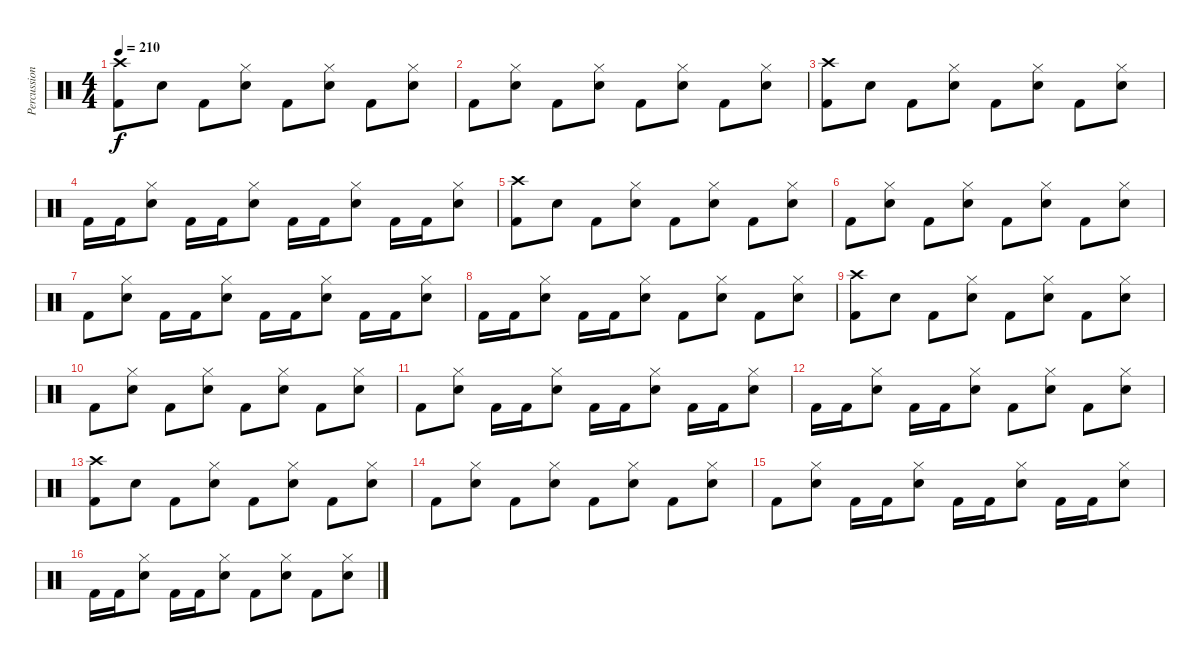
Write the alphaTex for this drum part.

\track ("Percussion" "Percussion") {instrument percussion}
\staff {score}
\articulation defaults
\ts (4 4)
\tempo 210
\clef neutral
\ks c
("Crash high (hit)" "Kick (hit) 2").8{dy f} "Electric Snare (hit)".8 "Kick (hit) 2".8 ("Hi-Hat (closed)" "Electric Snare (hit)").8 "Kick (hit) 2".8 ("Hi-Hat (closed)" "Electric Snare (hit)").8 "Kick (hit) 2".8 ("Hi-Hat (closed)" "Electric Snare (hit)").8 |
"Kick (hit) 2".8 ("Hi-Hat (closed)" "Electric Snare (hit)").8 "Kick (hit) 2".8 ("Hi-Hat (closed)" "Electric Snare (hit)").8 "Kick (hit) 2".8 ("Hi-Hat (closed)" "Electric Snare (hit)").8 "Kick (hit) 2".8 ("Hi-Hat (closed)" "Electric Snare (hit)").8 |
("Crash high (hit)" "Kick (hit) 2").8 "Electric Snare (hit)".8 "Kick (hit) 2".8 ("Hi-Hat (closed)" "Electric Snare (hit)").8 "Kick (hit) 2".8 ("Hi-Hat (closed)" "Electric Snare (hit)").8 "Kick (hit) 2".8 ("Hi-Hat (closed)" "Electric Snare (hit)").8 |
"Kick (hit) 2".16 "Kick (hit) 2".16 ("Hi-Hat (closed)" "Electric Snare (hit)").8 "Kick (hit) 2".16 "Kick (hit) 2".16 ("Hi-Hat (closed)" "Electric Snare (hit)").8 "Kick (hit) 2".16 "Kick (hit) 2".16 ("Hi-Hat (closed)" "Electric Snare (hit)").8 "Kick (hit) 2".16 "Kick (hit) 2".16 ("Hi-Hat (closed)" "Electric Snare (hit)").8 |
("Crash high (hit)" "Kick (hit) 2").8 "Electric Snare (hit)".8 "Kick (hit) 2".8 ("Hi-Hat (closed)" "Electric Snare (hit)").8 "Kick (hit) 2".8 ("Hi-Hat (closed)" "Electric Snare (hit)").8 "Kick (hit) 2".8 ("Hi-Hat (closed)" "Electric Snare (hit)").8 |
"Kick (hit) 2".8 ("Hi-Hat (closed)" "Electric Snare (hit)").8 "Kick (hit) 2".8 ("Hi-Hat (closed)" "Electric Snare (hit)").8 "Kick (hit) 2".8 ("Hi-Hat (closed)" "Electric Snare (hit)").8 "Kick (hit) 2".8 ("Hi-Hat (closed)" "Electric Snare (hit)").8 |
"Kick (hit) 2".8 ("Hi-Hat (closed)" "Electric Snare (hit)").8 "Kick (hit) 2".16 "Kick (hit) 2".16 ("Hi-Hat (closed)" "Electric Snare (hit)").8 "Kick (hit) 2".16 "Kick (hit) 2".16 ("Hi-Hat (closed)" "Electric Snare (hit)").8 "Kick (hit) 2".16 "Kick (hit) 2".16 ("Hi-Hat (closed)" "Electric Snare (hit)").8 |
"Kick (hit) 2".16 "Kick (hit) 2".16 ("Hi-Hat (closed)" "Electric Snare (hit)").8 "Kick (hit) 2".16 "Kick (hit) 2".16 ("Hi-Hat (closed)" "Electric Snare (hit)").8 "Kick (hit) 2".8 ("Hi-Hat (closed)" "Electric Snare (hit)").8 "Kick (hit) 2".8 ("Hi-Hat (closed)" "Electric Snare (hit)").8 |
("Crash high (hit)" "Kick (hit) 2").8 "Electric Snare (hit)".8 "Kick (hit) 2".8 ("Hi-Hat (closed)" "Electric Snare (hit)").8 "Kick (hit) 2".8 ("Hi-Hat (closed)" "Electric Snare (hit)").8 "Kick (hit) 2".8 ("Hi-Hat (closed)" "Electric Snare (hit)").8 |
"Kick (hit) 2".8 ("Hi-Hat (closed)" "Electric Snare (hit)").8 "Kick (hit) 2".8 ("Hi-Hat (closed)" "Electric Snare (hit)").8 "Kick (hit) 2".8 ("Hi-Hat (closed)" "Electric Snare (hit)").8 "Kick (hit) 2".8 ("Hi-Hat (closed)" "Electric Snare (hit)").8 |
"Kick (hit) 2".8 ("Hi-Hat (closed)" "Electric Snare (hit)").8 "Kick (hit) 2".16 "Kick (hit) 2".16 ("Hi-Hat (closed)" "Electric Snare (hit)").8 "Kick (hit) 2".16 "Kick (hit) 2".16 ("Hi-Hat (closed)" "Electric Snare (hit)").8 "Kick (hit) 2".16 "Kick (hit) 2".16 ("Hi-Hat (closed)" "Electric Snare (hit)").8 |
"Kick (hit) 2".16 "Kick (hit) 2".16 ("Hi-Hat (closed)" "Electric Snare (hit)").8 "Kick (hit) 2".16 "Kick (hit) 2".16 ("Hi-Hat (closed)" "Electric Snare (hit)").8 "Kick (hit) 2".8 ("Hi-Hat (closed)" "Electric Snare (hit)").8 "Kick (hit) 2".8 ("Hi-Hat (closed)" "Electric Snare (hit)").8 |
("Crash high (hit)" "Kick (hit) 2").8 "Electric Snare (hit)".8 "Kick (hit) 2".8 ("Hi-Hat (closed)" "Electric Snare (hit)").8 "Kick (hit) 2".8 ("Hi-Hat (closed)" "Electric Snare (hit)").8 "Kick (hit) 2".8 ("Hi-Hat (closed)" "Electric Snare (hit)").8 |
"Kick (hit) 2".8 ("Hi-Hat (closed)" "Electric Snare (hit)").8 "Kick (hit) 2".8 ("Hi-Hat (closed)" "Electric Snare (hit)").8 "Kick (hit) 2".8 ("Hi-Hat (closed)" "Electric Snare (hit)").8 "Kick (hit) 2".8 ("Hi-Hat (closed)" "Electric Snare (hit)").8 |
"Kick (hit) 2".8 ("Hi-Hat (closed)" "Electric Snare (hit)").8 "Kick (hit) 2".16 "Kick (hit) 2".16 ("Hi-Hat (closed)" "Electric Snare (hit)").8 "Kick (hit) 2".16 "Kick (hit) 2".16 ("Hi-Hat (closed)" "Electric Snare (hit)").8 "Kick (hit) 2".16 "Kick (hit) 2".16 ("Hi-Hat (closed)" "Electric Snare (hit)").8 |
"Kick (hit) 2".16 "Kick (hit) 2".16 ("Hi-Hat (closed)" "Electric Snare (hit)").8 "Kick (hit) 2".16 "Kick (hit) 2".16 ("Hi-Hat (closed)" "Electric Snare (hit)").8 "Kick (hit) 2".8 ("Hi-Hat (closed)" "Electric Snare (hit)").8 "Kick (hit) 2".8 ("Hi-Hat (closed)" "Electric Snare (hit)").8
